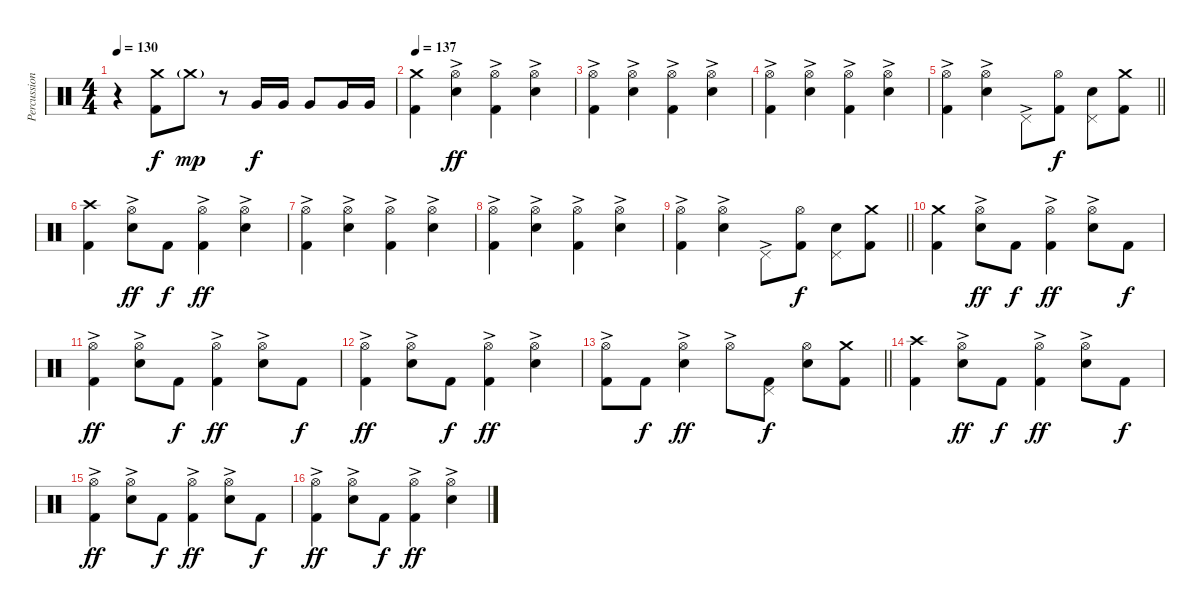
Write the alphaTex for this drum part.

\track ("Percussion" "Percussion") {instrument percussion}
\staff {score}
\articulation defaults
\ts (4 4)
\tempo 130
\clef neutral
\ks c
r.4{dy f} ("Crash medium (hit)" "Kick (hit) 2").8{volume 14} "Crash medium (hit)"{g}.8{dy mp volume 0} r.8 "Very Low Tom (hit)".16{dy f volume 13} "Very Low Tom (hit)".16 "Very Low Tom (hit)".8 "Very Low Tom (hit)".16 "Very Low Tom (hit)".16 |
\tempo 137
("Crash medium (hit)" "Kick (hit) 2").4 ("Hi-Hat (open)"{ac} "Snare (hit) 2").4{dy ff} ("Hi-Hat (open)"{ac} "Kick (hit) 2").4 ("Hi-Hat (open)"{ac} "Snare (hit) 2").4 |
("Hi-Hat (open)"{ac} "Kick (hit) 2").4 ("Hi-Hat (open)"{ac} "Snare (hit) 2").4 ("Hi-Hat (open)"{ac} "Kick (hit) 2").4 ("Hi-Hat (open)"{ac} "Snare (hit) 2").4 |
("Hi-Hat (open)"{ac} "Kick (hit) 2").4 ("Hi-Hat (open)"{ac} "Snare (hit) 2").4 ("Hi-Hat (open)"{ac} "Kick (hit) 2").4 ("Hi-Hat (open)"{ac} "Snare (hit) 2").4 |
\barLineRight lightlight
("Hi-Hat (open)"{ac} "Kick (hit) 2").4 ("Hi-Hat (open)"{ac} "Snare (hit) 2").4 "Pedal Hi-Hat (hit)"{ac}.8 ("Hi-Hat (open)" "Kick (hit) 2").8{dy f} ("Pedal Hi-Hat (hit)" "Snare (hit) 2").8 ("Crash medium (hit)" "Kick (hit) 2").8 |
("Crash high (hit)" "Kick (hit) 2").4 ("Hi-Hat (open)"{ac} "Snare (hit) 2").8{dy ff} "Kick (hit) 2".8{dy f} ("Hi-Hat (open)"{ac} "Kick (hit) 2").4{dy ff} ("Hi-Hat (open)"{ac} "Snare (hit) 2").4 |
("Hi-Hat (open)"{ac} "Kick (hit) 2").4 ("Hi-Hat (open)"{ac} "Snare (hit) 2").4 ("Hi-Hat (open)"{ac} "Kick (hit) 2").4 ("Hi-Hat (open)"{ac} "Snare (hit) 2").4 |
("Hi-Hat (open)"{ac} "Kick (hit) 2").4 ("Hi-Hat (open)"{ac} "Snare (hit) 2").4 ("Hi-Hat (open)"{ac} "Kick (hit) 2").4 ("Hi-Hat (open)"{ac} "Snare (hit) 2").4 |
\barLineRight lightlight
("Hi-Hat (open)"{ac} "Kick (hit) 2").4 ("Hi-Hat (open)"{ac} "Snare (hit) 2").4 "Pedal Hi-Hat (hit)"{ac}.8 ("Hi-Hat (open)" "Kick (hit) 2").8{dy f} ("Pedal Hi-Hat (hit)" "Snare (hit) 2").8 ("Crash medium (hit)" "Kick (hit) 2").8 |
("Crash medium (hit)" "Kick (hit) 2").4 ("Hi-Hat (open)"{ac} "Snare (hit) 2").8{dy ff} "Kick (hit) 2".8{dy f} ("Hi-Hat (open)"{ac} "Kick (hit) 2").4{dy ff} ("Hi-Hat (open)"{ac} "Snare (hit) 2").8 "Kick (hit) 2".8{dy f} |
("Hi-Hat (open)"{ac} "Kick (hit) 2").4{dy ff} ("Hi-Hat (open)"{ac} "Snare (hit) 2").8 "Kick (hit) 2".8{dy f} ("Hi-Hat (open)"{ac} "Kick (hit) 2").4{dy ff} ("Hi-Hat (open)"{ac} "Snare (hit) 2").8 "Kick (hit) 2".8{dy f} |
("Hi-Hat (open)"{ac} "Kick (hit) 2").4{dy ff} ("Hi-Hat (open)"{ac} "Snare (hit) 2").8 "Kick (hit) 2".8{dy f} ("Hi-Hat (open)"{ac} "Kick (hit) 2").4{dy ff} ("Hi-Hat (open)"{ac} "Snare (hit) 2").4 |
\barLineRight lightlight
("Hi-Hat (open)"{ac} "Kick (hit) 2").8 "Kick (hit) 2".8{dy f} ("Hi-Hat (open)"{ac} "Snare (hit) 2").4{dy ff} "Hi-Hat (open)"{ac}.8 ("Pedal Hi-Hat (hit)" "Kick (hit) 2").8{dy f} ("Hi-Hat (open)" "Snare (hit) 2").8 ("Crash medium (hit)" "Kick (hit) 2").8 |
("Crash high (hit)" "Kick (hit) 2").4 ("Hi-Hat (open)"{ac} "Snare (hit) 2").8{dy ff} "Kick (hit) 2".8{dy f} ("Hi-Hat (open)"{ac} "Kick (hit) 2").4{dy ff} ("Hi-Hat (open)"{ac} "Snare (hit) 2").8 "Kick (hit) 2".8{dy f} |
("Hi-Hat (open)"{ac} "Kick (hit) 2").4{dy ff} ("Hi-Hat (open)"{ac} "Snare (hit) 2").8 "Kick (hit) 2".8{dy f} ("Hi-Hat (open)"{ac} "Kick (hit) 2").4{dy ff} ("Hi-Hat (open)"{ac} "Snare (hit) 2").8 "Kick (hit) 2".8{dy f} |
("Hi-Hat (open)"{ac} "Kick (hit) 2").4{dy ff} ("Hi-Hat (open)"{ac} "Snare (hit) 2").8 "Kick (hit) 2".8{dy f} ("Hi-Hat (open)"{ac} "Kick (hit) 2").4{dy ff} ("Hi-Hat (open)"{ac} "Snare (hit) 2").4
